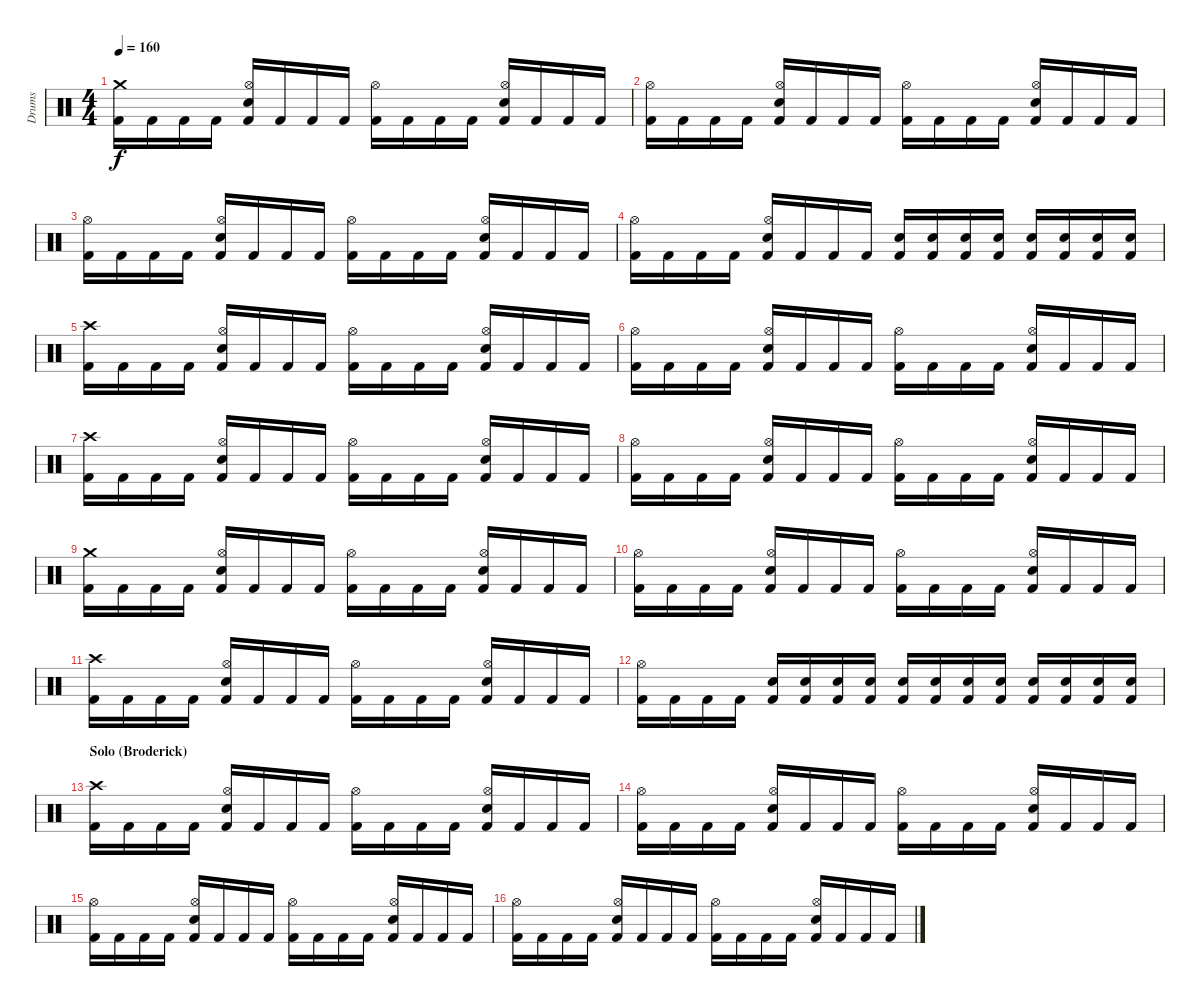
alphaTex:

\track ("Drums" "Drums") {instrument percussion}
\staff {score}
\articulation defaults
\ts (4 4)
\tempo 160
\clef neutral
\ks c
("Crash medium (hit)" "Kick (hit) 2").16{dy f} "Kick (hit) 2".16 "Kick (hit) 2".16 "Kick (hit) 2".16 ("Hi-Hat (open)" "Snare (hit) 2" "Kick (hit) 2").16 "Kick (hit) 2".16 "Kick (hit) 2".16 "Kick (hit) 2".16 ("Hi-Hat (open)" "Kick (hit) 2").16 "Kick (hit) 2".16 "Kick (hit) 2".16 "Kick (hit) 2".16 ("Hi-Hat (open)" "Snare (hit) 2" "Kick (hit) 2").16 "Kick (hit) 2".16 "Kick (hit) 2".16 "Kick (hit) 2".16 |
("Hi-Hat (open)" "Kick (hit) 2").16 "Kick (hit) 2".16 "Kick (hit) 2".16 "Kick (hit) 2".16 ("Hi-Hat (open)" "Snare (hit) 2" "Kick (hit) 2").16 "Kick (hit) 2".16 "Kick (hit) 2".16 "Kick (hit) 2".16 ("Hi-Hat (open)" "Kick (hit) 2").16 "Kick (hit) 2".16 "Kick (hit) 2".16 "Kick (hit) 2".16 ("Hi-Hat (open)" "Snare (hit) 2" "Kick (hit) 2").16 "Kick (hit) 2".16 "Kick (hit) 2".16 "Kick (hit) 2".16 |
("Hi-Hat (open)" "Kick (hit) 2").16 "Kick (hit) 2".16 "Kick (hit) 2".16 "Kick (hit) 2".16 ("Hi-Hat (open)" "Snare (hit) 2" "Kick (hit) 2").16 "Kick (hit) 2".16 "Kick (hit) 2".16 "Kick (hit) 2".16 ("Hi-Hat (open)" "Kick (hit) 2").16 "Kick (hit) 2".16 "Kick (hit) 2".16 "Kick (hit) 2".16 ("Hi-Hat (open)" "Snare (hit) 2" "Kick (hit) 2").16 "Kick (hit) 2".16 "Kick (hit) 2".16 "Kick (hit) 2".16 |
("Hi-Hat (open)" "Kick (hit) 2").16 "Kick (hit) 2".16 "Kick (hit) 2".16 "Kick (hit) 2".16 ("Hi-Hat (open)" "Snare (hit) 2" "Kick (hit) 2").16 "Kick (hit) 2".16 "Kick (hit) 2".16 "Kick (hit) 2".16 ("Snare (hit) 2" "Kick (hit) 2").16 ("Snare (hit) 2" "Kick (hit) 2").16 ("Snare (hit) 2" "Kick (hit) 2").16 ("Snare (hit) 2" "Kick (hit) 2").16 ("Snare (hit) 2" "Kick (hit) 2").16 ("Snare (hit) 2" "Kick (hit) 2").16 ("Snare (hit) 2" "Kick (hit) 2").16 ("Snare (hit) 2" "Kick (hit) 2").16 |
("Crash high (hit)" "Kick (hit) 2").16 "Kick (hit) 2".16 "Kick (hit) 2".16 "Kick (hit) 2".16 ("Hi-Hat (open)" "Snare (hit) 2" "Kick (hit) 2").16 "Kick (hit) 2".16 "Kick (hit) 2".16 "Kick (hit) 2".16 ("Hi-Hat (open)" "Kick (hit) 2").16 "Kick (hit) 2".16 "Kick (hit) 2".16 "Kick (hit) 2".16 ("Hi-Hat (open)" "Snare (hit) 2" "Kick (hit) 2").16 "Kick (hit) 2".16 "Kick (hit) 2".16 "Kick (hit) 2".16 |
("Hi-Hat (open)" "Kick (hit) 2").16 "Kick (hit) 2".16 "Kick (hit) 2".16 "Kick (hit) 2".16 ("Hi-Hat (open)" "Snare (hit) 2" "Kick (hit) 2").16 "Kick (hit) 2".16 "Kick (hit) 2".16 "Kick (hit) 2".16 ("Hi-Hat (open)" "Kick (hit) 2").16 "Kick (hit) 2".16 "Kick (hit) 2".16 "Kick (hit) 2".16 ("Hi-Hat (open)" "Snare (hit) 2" "Kick (hit) 2").16 "Kick (hit) 2".16 "Kick (hit) 2".16 "Kick (hit) 2".16 |
("Crash high (hit)" "Kick (hit) 2").16 "Kick (hit) 2".16 "Kick (hit) 2".16 "Kick (hit) 2".16 ("Hi-Hat (open)" "Snare (hit) 2" "Kick (hit) 2").16 "Kick (hit) 2".16 "Kick (hit) 2".16 "Kick (hit) 2".16 ("Hi-Hat (open)" "Kick (hit) 2").16 "Kick (hit) 2".16 "Kick (hit) 2".16 "Kick (hit) 2".16 ("Hi-Hat (open)" "Snare (hit) 2" "Kick (hit) 2").16 "Kick (hit) 2".16 "Kick (hit) 2".16 "Kick (hit) 2".16 |
("Hi-Hat (open)" "Kick (hit) 2").16 "Kick (hit) 2".16 "Kick (hit) 2".16 "Kick (hit) 2".16 ("Hi-Hat (open)" "Snare (hit) 2" "Kick (hit) 2").16 "Kick (hit) 2".16 "Kick (hit) 2".16 "Kick (hit) 2".16 ("Hi-Hat (open)" "Kick (hit) 2").16 "Kick (hit) 2".16 "Kick (hit) 2".16 "Kick (hit) 2".16 ("Hi-Hat (open)" "Snare (hit) 2" "Kick (hit) 2").16 "Kick (hit) 2".16 "Kick (hit) 2".16 "Kick (hit) 2".16 |
("Crash medium (hit)" "Kick (hit) 2").16 "Kick (hit) 2".16 "Kick (hit) 2".16 "Kick (hit) 2".16 ("Hi-Hat (open)" "Snare (hit) 2" "Kick (hit) 2").16 "Kick (hit) 2".16 "Kick (hit) 2".16 "Kick (hit) 2".16 ("Hi-Hat (open)" "Kick (hit) 2").16 "Kick (hit) 2".16 "Kick (hit) 2".16 "Kick (hit) 2".16 ("Hi-Hat (open)" "Snare (hit) 2" "Kick (hit) 2").16 "Kick (hit) 2".16 "Kick (hit) 2".16 "Kick (hit) 2".16 |
("Hi-Hat (open)" "Kick (hit) 2").16 "Kick (hit) 2".16 "Kick (hit) 2".16 "Kick (hit) 2".16 ("Hi-Hat (open)" "Snare (hit) 2" "Kick (hit) 2").16 "Kick (hit) 2".16 "Kick (hit) 2".16 "Kick (hit) 2".16 ("Hi-Hat (open)" "Kick (hit) 2").16 "Kick (hit) 2".16 "Kick (hit) 2".16 "Kick (hit) 2".16 ("Hi-Hat (open)" "Snare (hit) 2" "Kick (hit) 2").16 "Kick (hit) 2".16 "Kick (hit) 2".16 "Kick (hit) 2".16 |
("Crash high (hit)" "Kick (hit) 2").16 "Kick (hit) 2".16 "Kick (hit) 2".16 "Kick (hit) 2".16 ("Hi-Hat (open)" "Snare (hit) 2" "Kick (hit) 2").16 "Kick (hit) 2".16 "Kick (hit) 2".16 "Kick (hit) 2".16 ("Hi-Hat (open)" "Kick (hit) 2").16 "Kick (hit) 2".16 "Kick (hit) 2".16 "Kick (hit) 2".16 ("Hi-Hat (open)" "Snare (hit) 2" "Kick (hit) 2").16 "Kick (hit) 2".16 "Kick (hit) 2".16 "Kick (hit) 2".16 |
("Hi-Hat (open)" "Kick (hit) 2").16 "Kick (hit) 2".16 "Kick (hit) 2".16 "Kick (hit) 2".16 ("Snare (hit) 2" "Kick (hit) 2").16 ("Snare (hit) 2" "Kick (hit) 2").16 ("Snare (hit) 2" "Kick (hit) 2").16 ("Snare (hit) 2" "Kick (hit) 2").16 ("Snare (hit) 2" "Kick (hit) 2").16 ("Snare (hit) 2" "Kick (hit) 2").16 ("Snare (hit) 2" "Kick (hit) 2").16 ("Snare (hit) 2" "Kick (hit) 2").16 ("Snare (hit) 2" "Kick (hit) 2").16 ("Snare (hit) 2" "Kick (hit) 2").16 ("Snare (hit) 2" "Kick (hit) 2").16 ("Snare (hit) 2" "Kick (hit) 2").16 |
\section ("" "Solo (Broderick)")
("Crash high (hit)" "Kick (hit) 2").16 "Kick (hit) 2".16 "Kick (hit) 2".16 "Kick (hit) 2".16 ("Hi-Hat (open)" "Snare (hit) 2" "Kick (hit) 2").16 "Kick (hit) 2".16 "Kick (hit) 2".16 "Kick (hit) 2".16 ("Hi-Hat (open)" "Kick (hit) 2").16 "Kick (hit) 2".16 "Kick (hit) 2".16 "Kick (hit) 2".16 ("Hi-Hat (open)" "Snare (hit) 2" "Kick (hit) 2").16 "Kick (hit) 2".16 "Kick (hit) 2".16 "Kick (hit) 2".16 |
("Hi-Hat (open)" "Kick (hit) 2").16 "Kick (hit) 2".16 "Kick (hit) 2".16 "Kick (hit) 2".16 ("Hi-Hat (open)" "Snare (hit) 2" "Kick (hit) 2").16 "Kick (hit) 2".16 "Kick (hit) 2".16 "Kick (hit) 2".16 ("Hi-Hat (open)" "Kick (hit) 2").16 "Kick (hit) 2".16 "Kick (hit) 2".16 "Kick (hit) 2".16 ("Hi-Hat (open)" "Snare (hit) 2" "Kick (hit) 2").16 "Kick (hit) 2".16 "Kick (hit) 2".16 "Kick (hit) 2".16 |
("Hi-Hat (open)" "Kick (hit) 2").16 "Kick (hit) 2".16 "Kick (hit) 2".16 "Kick (hit) 2".16 ("Hi-Hat (open)" "Snare (hit) 2" "Kick (hit) 2").16 "Kick (hit) 2".16 "Kick (hit) 2".16 "Kick (hit) 2".16 ("Hi-Hat (open)" "Kick (hit) 2").16 "Kick (hit) 2".16 "Kick (hit) 2".16 "Kick (hit) 2".16 ("Hi-Hat (open)" "Snare (hit) 2" "Kick (hit) 2").16 "Kick (hit) 2".16 "Kick (hit) 2".16 "Kick (hit) 2".16 |
("Hi-Hat (open)" "Kick (hit) 2").16 "Kick (hit) 2".16 "Kick (hit) 2".16 "Kick (hit) 2".16 ("Hi-Hat (open)" "Snare (hit) 2" "Kick (hit) 2").16 "Kick (hit) 2".16 "Kick (hit) 2".16 "Kick (hit) 2".16 ("Hi-Hat (open)" "Kick (hit) 2").16 "Kick (hit) 2".16 "Kick (hit) 2".16 "Kick (hit) 2".16 ("Hi-Hat (open)" "Snare (hit) 2" "Kick (hit) 2").16 "Kick (hit) 2".16 "Kick (hit) 2".16 "Kick (hit) 2".16
